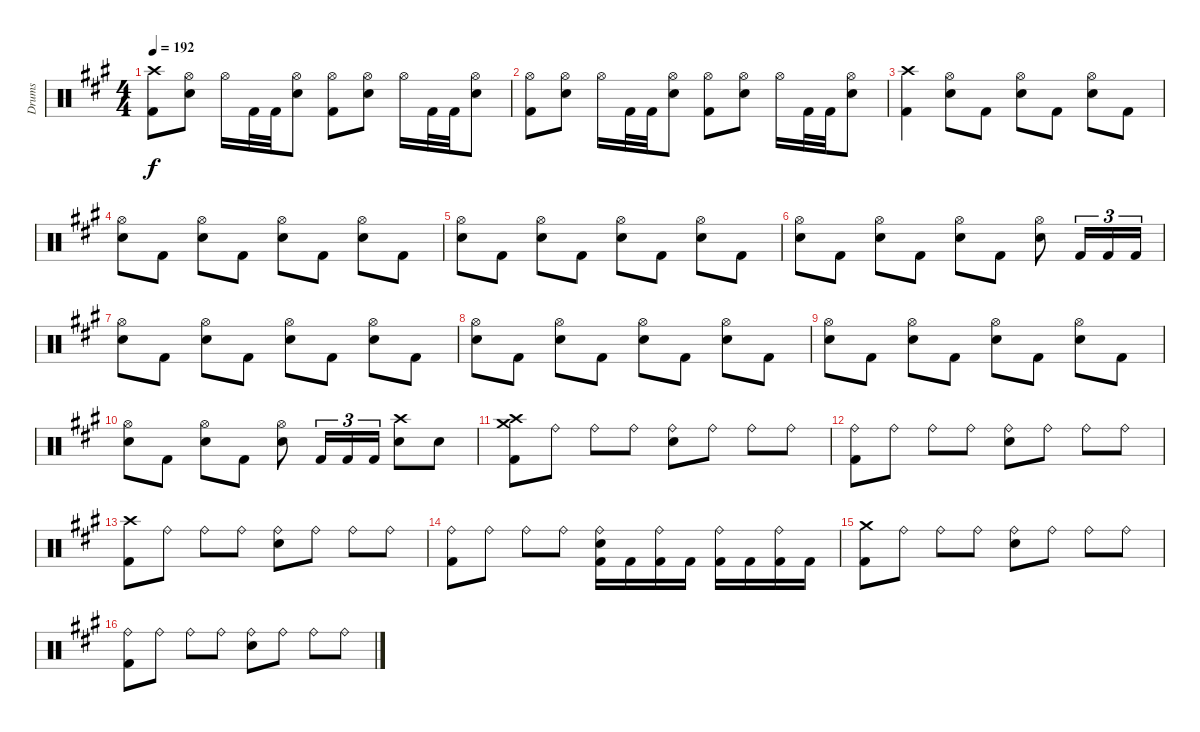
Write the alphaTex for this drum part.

\track ("Drums" "Drums") {instrument percussion}
\staff {score}
\articulation defaults
\ts (4 4)
\tempo 192
\clef neutral
\ks f#minor
("Crash high (hit)" "Kick (hit) 2").8{dy f} ("Hi-Hat (open)" "Snare (hit) 2").8 "Hi-Hat (open)".16 "Kick (hit) 2".32 "Kick (hit) 2".32 ("Hi-Hat (open)" "Snare (hit) 2").8 ("Hi-Hat (open)" "Kick (hit) 2").8 ("Hi-Hat (open)" "Snare (hit) 2").8 "Hi-Hat (open)".16 "Kick (hit) 2".32 "Kick (hit) 2".32 ("Hi-Hat (open)" "Snare (hit) 2").8 |
("Hi-Hat (open)" "Kick (hit) 2").8 ("Hi-Hat (open)" "Snare (hit) 2").8 "Hi-Hat (open)".16 "Kick (hit) 2".32 "Kick (hit) 2".32 ("Hi-Hat (open)" "Snare (hit) 2").8 ("Hi-Hat (open)" "Kick (hit) 2").8 ("Hi-Hat (open)" "Snare (hit) 2").8 "Hi-Hat (open)".16 "Kick (hit) 2".32 "Kick (hit) 2".32 ("Hi-Hat (open)" "Snare (hit) 2").8 |
("Crash high (hit)" "Kick (hit) 2").4 ("Hi-Hat (open)" "Snare (hit) 2").8 "Kick (hit) 2".8 ("Hi-Hat (open)" "Snare (hit) 2").8 "Kick (hit) 2".8 ("Hi-Hat (open)" "Snare (hit) 2").8 "Kick (hit) 2".8 |
("Hi-Hat (open)" "Snare (hit) 2").8 "Kick (hit) 2".8 ("Hi-Hat (open)" "Snare (hit) 2").8 "Kick (hit) 2".8 ("Hi-Hat (open)" "Snare (hit) 2").8 "Kick (hit) 2".8 ("Hi-Hat (open)" "Snare (hit) 2").8 "Kick (hit) 2".8 |
("Hi-Hat (open)" "Snare (hit) 2").8 "Kick (hit) 2".8 ("Hi-Hat (open)" "Snare (hit) 2").8 "Kick (hit) 2".8 ("Hi-Hat (open)" "Snare (hit) 2").8 "Kick (hit) 2".8 ("Hi-Hat (open)" "Snare (hit) 2").8 "Kick (hit) 2".8 |
("Hi-Hat (open)" "Snare (hit) 2").8 "Kick (hit) 2".8 ("Hi-Hat (open)" "Snare (hit) 2").8 "Kick (hit) 2".8 ("Hi-Hat (open)" "Snare (hit) 2").8 "Kick (hit) 2".8 ("Hi-Hat (open)" "Snare (hit) 2").8 "Kick (hit) 2".16{tu (3 2)} "Kick (hit) 2".16{tu (3 2)} "Kick (hit) 2".16{tu (3 2)} |
("Hi-Hat (open)" "Snare (hit) 2").8 "Kick (hit) 2".8 ("Hi-Hat (open)" "Snare (hit) 2").8 "Kick (hit) 2".8 ("Hi-Hat (open)" "Snare (hit) 2").8 "Kick (hit) 2".8 ("Hi-Hat (open)" "Snare (hit) 2").8 "Kick (hit) 2".8 |
("Hi-Hat (open)" "Snare (hit) 2").8 "Kick (hit) 2".8 ("Hi-Hat (open)" "Snare (hit) 2").8 "Kick (hit) 2".8 ("Hi-Hat (open)" "Snare (hit) 2").8 "Kick (hit) 2".8 ("Hi-Hat (open)" "Snare (hit) 2").8 "Kick (hit) 2".8 |
("Hi-Hat (open)" "Snare (hit) 2").8 "Kick (hit) 2".8 ("Hi-Hat (open)" "Snare (hit) 2").8 "Kick (hit) 2".8 ("Hi-Hat (open)" "Snare (hit) 2").8 "Kick (hit) 2".8 ("Hi-Hat (open)" "Snare (hit) 2").8 "Kick (hit) 2".8 |
("Hi-Hat (open)" "Snare (hit) 2").8 "Kick (hit) 2".8 ("Hi-Hat (open)" "Snare (hit) 2").8 "Kick (hit) 2".8 ("Hi-Hat (open)" "Snare (hit) 2").8 "Kick (hit) 2".16{tu (3 2)} "Kick (hit) 2".16{tu (3 2)} "Kick (hit) 2".16{tu (3 2)} ("Crash high (hit)" "Snare (hit) 2").8 "Snare (hit) 2".8 |
("Crash high (hit)" "Crash medium (hit)" "Kick (hit) 2").8 "Ride (bell)".8 "Ride (bell)".8 "Ride (bell)".8 ("Ride (bell)" "Snare (hit) 2").8 "Ride (bell)".8 "Ride (bell)".8 "Ride (bell)".8 |
("Ride (bell)" "Kick (hit) 2").8 "Ride (bell)".8 "Ride (bell)".8 "Ride (bell)".8 ("Ride (bell)" "Snare (hit) 2").8 "Ride (bell)".8 "Ride (bell)".8 "Ride (bell)".8 |
("Crash high (hit)" "Kick (hit) 2").8 "Ride (bell)".8 "Ride (bell)".8 "Ride (bell)".8 ("Ride (bell)" "Snare (hit) 2").8 "Ride (bell)".8 "Ride (bell)".8 "Ride (bell)".8 |
("Ride (bell)" "Kick (hit) 2").8 "Ride (bell)".8 "Ride (bell)".8 "Ride (bell)".8 ("Ride (bell)" "Snare (hit) 2" "Kick (hit) 2").16 "Kick (hit) 2".16 ("Ride (bell)" "Kick (hit) 2").16 "Kick (hit) 2".16 ("Ride (bell)" "Kick (hit) 2").16 "Kick (hit) 2".16 ("Ride (bell)" "Kick (hit) 2").16 "Kick (hit) 2".16 |
("Crash medium (hit)" "Kick (hit) 2").8 "Ride (bell)".8 "Ride (bell)".8 "Ride (bell)".8 ("Ride (bell)" "Snare (hit) 2").8 "Ride (bell)".8 "Ride (bell)".8 "Ride (bell)".8 |
("Ride (bell)" "Kick (hit) 2").8 "Ride (bell)".8 "Ride (bell)".8 "Ride (bell)".8 ("Ride (bell)" "Snare (hit) 2").8 "Ride (bell)".8 "Ride (bell)".8 "Ride (bell)".8
